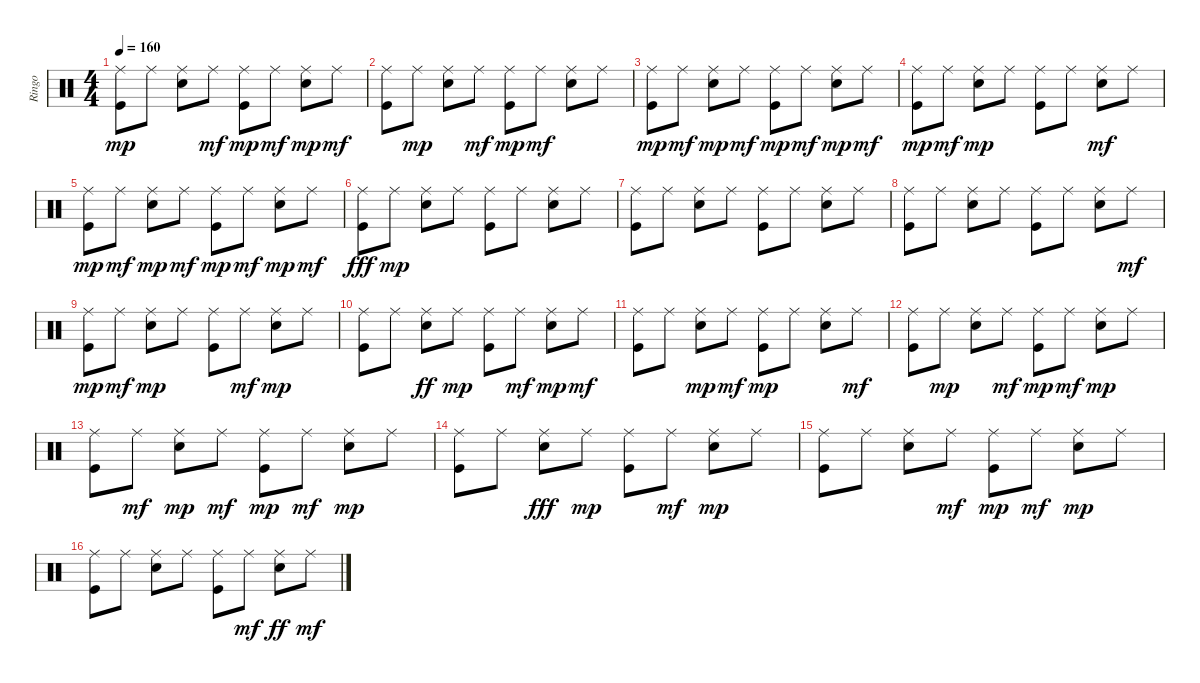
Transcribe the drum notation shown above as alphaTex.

\track ("Ringo" "Ringo") {instrument percussion}
\staff {score}
\articulation defaults
\ts (4 4)
\tempo 160
\clef neutral
\ks c
("Kick (hit)" "Ride (middle)").8{dy mp} "Ride (middle)".8 ("Electric Snare (hit)" "Ride (middle)").8 "Ride (middle)".8{dy mf} ("Kick (hit)" "Ride (middle)").8{dy mp} "Ride (middle)".8{dy mf} ("Electric Snare (hit)" "Ride (middle)").8{dy mp} "Ride (middle)".8{dy mf} |
("Kick (hit)" "Ride (middle)").8 "Ride (middle)".8{dy mp} ("Electric Snare (hit)" "Ride (middle)").8 "Ride (middle)".8{dy mf} ("Kick (hit)" "Ride (middle)").8{dy mp} "Ride (middle)".8{dy mf} ("Electric Snare (hit)" "Ride (middle)").8 "Ride (middle)".8 |
("Kick (hit)" "Ride (middle)").8{dy mp} "Ride (middle)".8{dy mf} ("Electric Snare (hit)" "Ride (middle)").8{dy mp} "Ride (middle)".8{dy mf} ("Kick (hit)" "Ride (middle)").8{dy mp} "Ride (middle)".8{dy mf} ("Electric Snare (hit)" "Ride (middle)").8{dy mp} "Ride (middle)".8{dy mf} |
("Kick (hit)" "Ride (middle)").8{dy mp} "Ride (middle)".8{dy mf} ("Electric Snare (hit)" "Ride (middle)").8{dy mp} "Ride (middle)".8 ("Kick (hit)" "Ride (middle)").8 "Ride (middle)".8 ("Electric Snare (hit)" "Ride (middle)").8{dy mf} "Ride (middle)".8 |
("Kick (hit)" "Ride (middle)").8{dy mp} "Ride (middle)".8{dy mf} ("Electric Snare (hit)" "Ride (middle)").8{dy mp} "Ride (middle)".8{dy mf} ("Kick (hit)" "Ride (middle)").8{dy mp} "Ride (middle)".8{dy mf} ("Electric Snare (hit)" "Ride (middle)").8{dy mp} "Ride (middle)".8{dy mf} |
("Ride (middle)" "Kick (hit)").8{dy fff} "Ride (middle)".8{dy mp} ("Electric Snare (hit)" "Ride (middle)").8 "Ride (middle)".8 ("Kick (hit)" "Ride (middle)").8 "Ride (middle)".8 ("Electric Snare (hit)" "Ride (middle)").8 "Ride (middle)".8 |
("Kick (hit)" "Ride (middle)").8 "Ride (middle)".8 ("Electric Snare (hit)" "Ride (middle)").8 "Ride (middle)".8 ("Kick (hit)" "Ride (middle)").8 "Ride (middle)".8 ("Electric Snare (hit)" "Ride (middle)").8 "Ride (middle)".8 |
("Kick (hit)" "Ride (middle)").8 "Ride (middle)".8 ("Electric Snare (hit)" "Ride (middle)").8 "Ride (middle)".8 ("Kick (hit)" "Ride (middle)").8 "Ride (middle)".8 ("Electric Snare (hit)" "Ride (middle)").8 "Ride (middle)".8{dy mf} |
("Kick (hit)" "Ride (middle)").8{dy mp} "Ride (middle)".8{dy mf} ("Electric Snare (hit)" "Ride (middle)").8{dy mp} "Ride (middle)".8 ("Kick (hit)" "Ride (middle)").8 "Ride (middle)".8{dy mf} ("Electric Snare (hit)" "Ride (middle)").8{dy mp} "Ride (middle)".8 |
("Kick (hit)" "Ride (middle)").8 "Ride (middle)".8 ("Ride (middle)" "Electric Snare (hit)").8{dy ff} "Ride (middle)".8{dy mp} ("Kick (hit)" "Ride (middle)").8 "Ride (middle)".8{dy mf} ("Electric Snare (hit)" "Ride (middle)").8{dy mp} "Ride (middle)".8{dy mf} |
("Kick (hit)" "Ride (middle)").8 "Ride (middle)".8 ("Electric Snare (hit)" "Ride (middle)").8{dy mp} "Ride (middle)".8{dy mf} ("Kick (hit)" "Ride (middle)").8{dy mp} "Ride (middle)".8 ("Electric Snare (hit)" "Ride (middle)").8 "Ride (middle)".8{dy mf} |
("Kick (hit)" "Ride (middle)").8 "Ride (middle)".8{dy mp} ("Electric Snare (hit)" "Ride (middle)").8 "Ride (middle)".8{dy mf} ("Kick (hit)" "Ride (middle)").8{dy mp} "Ride (middle)".8{dy mf} ("Electric Snare (hit)" "Ride (middle)").8{dy mp} "Ride (middle)".8 |
("Kick (hit)" "Ride (middle)").8 "Ride (middle)".8{dy mf} ("Electric Snare (hit)" "Ride (middle)").8{dy mp} "Ride (middle)".8{dy mf} ("Kick (hit)" "Ride (middle)").8{dy mp} "Ride (middle)".8{dy mf} ("Electric Snare (hit)" "Ride (middle)").8{dy mp} "Ride (middle)".8 |
("Kick (hit)" "Ride (middle)").8 "Ride (middle)".8 ("Ride (middle)" "Electric Snare (hit)").8{dy fff} "Ride (middle)".8{dy mp} ("Kick (hit)" "Ride (middle)").8 "Ride (middle)".8{dy mf} ("Electric Snare (hit)" "Ride (middle)").8{dy mp} "Ride (middle)".8 |
("Kick (hit)" "Ride (middle)").8 "Ride (middle)".8 ("Electric Snare (hit)" "Ride (middle)").8 "Ride (middle)".8{dy mf} ("Kick (hit)" "Ride (middle)").8{dy mp} "Ride (middle)".8{dy mf} ("Electric Snare (hit)" "Ride (middle)").8{dy mp} "Ride (middle)".8 |
("Kick (hit)" "Ride (middle)").8 "Ride (middle)".8 ("Electric Snare (hit)" "Ride (middle)").8 "Ride (middle)".8 ("Ride (middle)" "Kick (hit)").8 "Ride (middle)".8{dy mf} ("Ride (middle)" "Electric Snare (hit)").8{dy ff} "Ride (middle)".8{dy mf}
